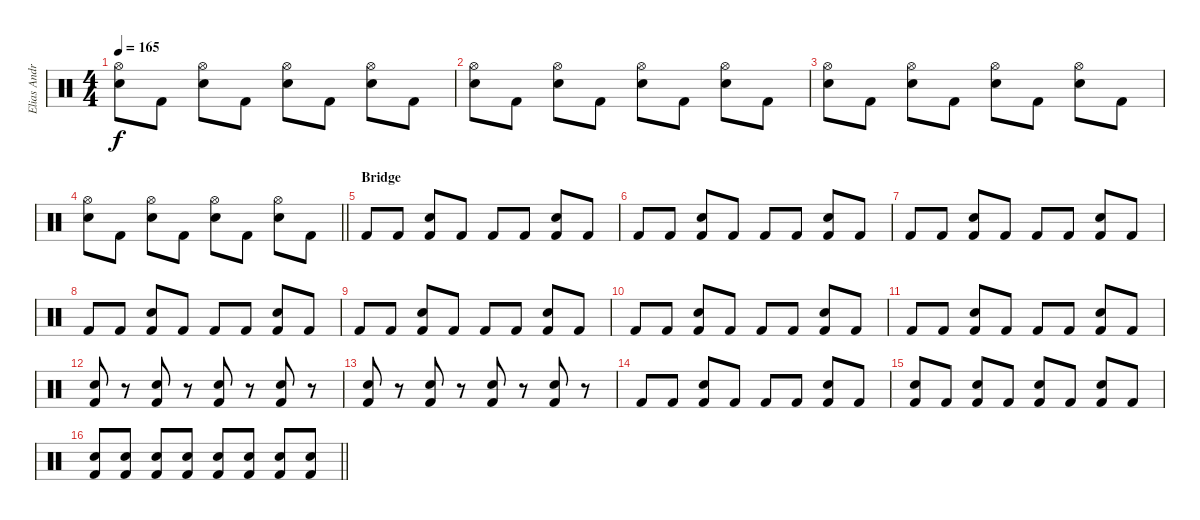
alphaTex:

\track ("Elias Andra-Drums" "Elias Andr") {instrument percussion}
\staff {score}
\articulation defaults
\ts (4 4)
\tempo 165
\clef neutral
\ks c
("Electric Snare (hit)" "Hi-Hat (open)").8{dy f} "Kick (hit) 2".8 ("Electric Snare (hit)" "Hi-Hat (open)").8 "Kick (hit) 2".8 ("Electric Snare (hit)" "Hi-Hat (open)").8 "Kick (hit) 2".8 ("Electric Snare (hit)" "Hi-Hat (open)").8 "Kick (hit) 2".8 |
("Electric Snare (hit)" "Hi-Hat (open)").8 "Kick (hit) 2".8 ("Electric Snare (hit)" "Hi-Hat (open)").8 "Kick (hit) 2".8 ("Electric Snare (hit)" "Hi-Hat (open)").8 "Kick (hit) 2".8 ("Electric Snare (hit)" "Hi-Hat (open)").8 "Kick (hit) 2".8 |
("Electric Snare (hit)" "Hi-Hat (open)").8 "Kick (hit) 2".8 ("Electric Snare (hit)" "Hi-Hat (open)").8 "Kick (hit) 2".8 ("Electric Snare (hit)" "Hi-Hat (open)").8 "Kick (hit) 2".8 ("Electric Snare (hit)" "Hi-Hat (open)").8 "Kick (hit) 2".8 |
\barLineRight lightlight
("Electric Snare (hit)" "Hi-Hat (open)").8 "Kick (hit) 2".8 ("Electric Snare (hit)" "Hi-Hat (open)").8 "Kick (hit) 2".8 ("Electric Snare (hit)" "Hi-Hat (open)").8 "Kick (hit) 2".8 ("Electric Snare (hit)" "Hi-Hat (open)").8 "Kick (hit) 2".8 |
\section ("" "Bridge")
"Kick (hit) 2".8 "Kick (hit) 2".8 ("Kick (hit) 2" "Electric Snare (hit)").8 "Kick (hit) 2".8 "Kick (hit) 2".8 "Kick (hit) 2".8 ("Kick (hit) 2" "Electric Snare (hit)").8 "Kick (hit) 2".8 |
"Kick (hit) 2".8 "Kick (hit) 2".8 ("Kick (hit) 2" "Electric Snare (hit)").8 "Kick (hit) 2".8 "Kick (hit) 2".8 "Kick (hit) 2".8 ("Kick (hit) 2" "Electric Snare (hit)").8 "Kick (hit) 2".8 |
"Kick (hit) 2".8 "Kick (hit) 2".8 ("Kick (hit) 2" "Electric Snare (hit)").8 "Kick (hit) 2".8 "Kick (hit) 2".8 "Kick (hit) 2".8 ("Kick (hit) 2" "Electric Snare (hit)").8 "Kick (hit) 2".8 |
"Kick (hit) 2".8 "Kick (hit) 2".8 ("Kick (hit) 2" "Electric Snare (hit)").8 "Kick (hit) 2".8 "Kick (hit) 2".8 "Kick (hit) 2".8 ("Kick (hit) 2" "Electric Snare (hit)").8 "Kick (hit) 2".8 |
"Kick (hit) 2".8 "Kick (hit) 2".8 ("Kick (hit) 2" "Electric Snare (hit)").8 "Kick (hit) 2".8 "Kick (hit) 2".8 "Kick (hit) 2".8 ("Kick (hit) 2" "Electric Snare (hit)").8 "Kick (hit) 2".8 |
"Kick (hit) 2".8 "Kick (hit) 2".8 ("Kick (hit) 2" "Electric Snare (hit)").8 "Kick (hit) 2".8 "Kick (hit) 2".8 "Kick (hit) 2".8 ("Kick (hit) 2" "Electric Snare (hit)").8 "Kick (hit) 2".8 |
"Kick (hit) 2".8 "Kick (hit) 2".8 ("Kick (hit) 2" "Electric Snare (hit)").8 "Kick (hit) 2".8 "Kick (hit) 2".8 "Kick (hit) 2".8 ("Kick (hit) 2" "Electric Snare (hit)").8 "Kick (hit) 2".8 |
("Kick (hit) 2" "Electric Snare (hit)").8 r.8 ("Kick (hit) 2" "Electric Snare (hit)").8 r.8 ("Kick (hit) 2" "Electric Snare (hit)").8 r.8 ("Kick (hit) 2" "Electric Snare (hit)").8 r.8 |
("Kick (hit) 2" "Electric Snare (hit)").8 r.8 ("Kick (hit) 2" "Electric Snare (hit)").8 r.8 ("Kick (hit) 2" "Electric Snare (hit)").8 r.8 ("Kick (hit) 2" "Electric Snare (hit)").8 r.8 |
"Kick (hit) 2".8 "Kick (hit) 2".8 ("Kick (hit) 2" "Electric Snare (hit)").8 "Kick (hit) 2".8 "Kick (hit) 2".8 "Kick (hit) 2".8 ("Kick (hit) 2" "Electric Snare (hit)").8 "Kick (hit) 2".8 |
("Kick (hit) 2" "Electric Snare (hit)").8 "Kick (hit) 2".8 ("Kick (hit) 2" "Electric Snare (hit)").8 "Kick (hit) 2".8 ("Kick (hit) 2" "Electric Snare (hit)").8 "Kick (hit) 2".8 ("Kick (hit) 2" "Electric Snare (hit)").8 "Kick (hit) 2".8 |
\barLineRight lightlight
("Kick (hit) 2" "Electric Snare (hit)").8 ("Kick (hit) 2" "Snare (hit) 2").8 ("Kick (hit) 2" "Electric Snare (hit)").8 ("Kick (hit) 2" "Snare (hit) 2").8 ("Kick (hit) 2" "Electric Snare (hit)").8 ("Kick (hit) 2" "Snare (hit) 2").8 ("Kick (hit) 2" "Electric Snare (hit)").8 ("Kick (hit) 2" "Snare (hit) 2").8
